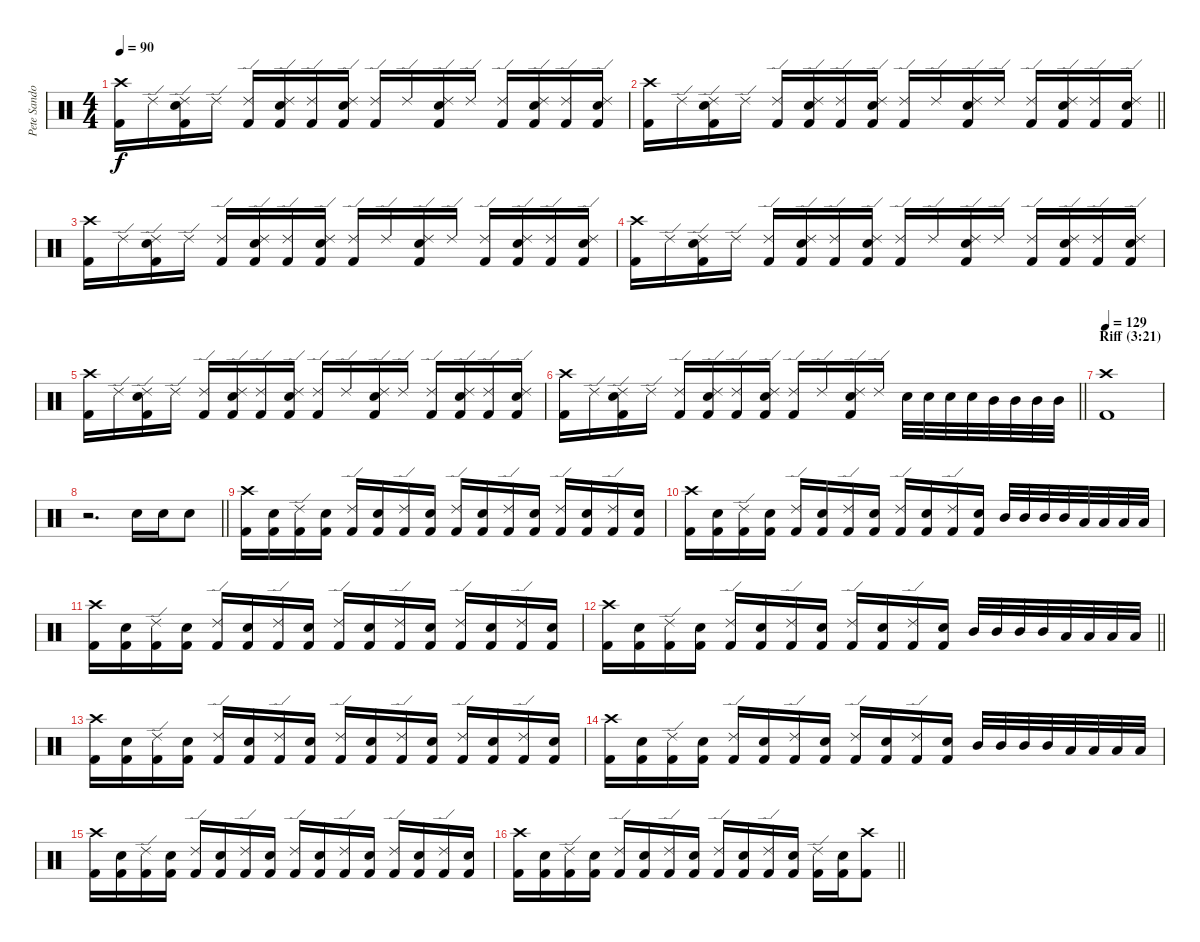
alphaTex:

\track ("Pete Sandoval " "Pete Sando") {instrument percussion}
\staff {score}
\articulation defaults
\ts (4 4)
\tempo 90
\clef neutral
\ks c
("Kick (hit) 2" "Crash high (hit)").16{dy f} "Ride (edge) 2".16 ("Kick (hit) 2" "Snare (hit) 2" "Ride (edge) 2").16 "Ride (edge) 2".16 ("Kick (hit) 2" "Ride (edge) 2").16 ("Kick (hit) 2" "Snare (hit) 2" "Ride (edge) 2").16 ("Kick (hit) 2" "Ride (edge) 2").16 ("Kick (hit) 2" "Snare (hit) 2" "Ride (edge) 2").16 ("Kick (hit) 2" "Ride (edge) 2").16 "Ride (edge) 2".16 ("Kick (hit) 2" "Snare (hit) 2" "Ride (edge) 2").16 "Ride (edge) 2".16 ("Kick (hit) 2" "Ride (edge) 2").16 ("Kick (hit) 2" "Snare (hit) 2" "Ride (edge) 2").16 ("Kick (hit) 2" "Ride (edge) 2").16 ("Kick (hit) 2" "Snare (hit) 2" "Ride (edge) 2").16 |
\barLineRight lightlight
("Kick (hit) 2" "Crash high (hit)").16 "Ride (edge) 2".16 ("Kick (hit) 2" "Snare (hit) 2" "Ride (edge) 2").16 "Ride (edge) 2".16 ("Kick (hit) 2" "Ride (edge) 2").16 ("Kick (hit) 2" "Snare (hit) 2" "Ride (edge) 2").16 ("Kick (hit) 2" "Ride (edge) 2").16 ("Kick (hit) 2" "Snare (hit) 2" "Ride (edge) 2").16 ("Kick (hit) 2" "Ride (edge) 2").16 "Ride (edge) 2".16 ("Kick (hit) 2" "Snare (hit) 2" "Ride (edge) 2").16 "Ride (edge) 2".16 ("Kick (hit) 2" "Ride (edge) 2").16 ("Kick (hit) 2" "Snare (hit) 2" "Ride (edge) 2").16 ("Kick (hit) 2" "Ride (edge) 2").16 ("Kick (hit) 2" "Snare (hit) 2" "Ride (edge) 2").16 |
("Kick (hit) 2" "Crash high (hit)").16 "Ride (edge) 2".16 ("Kick (hit) 2" "Snare (hit) 2" "Ride (edge) 2").16 "Ride (edge) 2".16 ("Kick (hit) 2" "Ride (edge) 2").16 ("Kick (hit) 2" "Snare (hit) 2" "Ride (edge) 2").16 ("Kick (hit) 2" "Ride (edge) 2").16 ("Kick (hit) 2" "Snare (hit) 2" "Ride (edge) 2").16 ("Kick (hit) 2" "Ride (edge) 2").16 "Ride (edge) 2".16 ("Kick (hit) 2" "Snare (hit) 2" "Ride (edge) 2").16 "Ride (edge) 2".16 ("Kick (hit) 2" "Ride (edge) 2").16 ("Kick (hit) 2" "Snare (hit) 2" "Ride (edge) 2").16 ("Kick (hit) 2" "Ride (edge) 2").16 ("Kick (hit) 2" "Snare (hit) 2" "Ride (edge) 2").16 |
("Kick (hit) 2" "Crash high (hit)").16 "Ride (edge) 2".16 ("Kick (hit) 2" "Snare (hit) 2" "Ride (edge) 2").16 "Ride (edge) 2".16 ("Kick (hit) 2" "Ride (edge) 2").16 ("Kick (hit) 2" "Snare (hit) 2" "Ride (edge) 2").16 ("Kick (hit) 2" "Ride (edge) 2").16 ("Kick (hit) 2" "Snare (hit) 2" "Ride (edge) 2").16 ("Kick (hit) 2" "Ride (edge) 2").16 "Ride (edge) 2".16 ("Kick (hit) 2" "Snare (hit) 2" "Ride (edge) 2").16 "Ride (edge) 2".16 ("Kick (hit) 2" "Ride (edge) 2").16 ("Kick (hit) 2" "Snare (hit) 2" "Ride (edge) 2").16 ("Kick (hit) 2" "Ride (edge) 2").16 ("Kick (hit) 2" "Snare (hit) 2" "Ride (edge) 2").16 |
("Kick (hit) 2" "Crash high (hit)").16 "Ride (edge) 2".16 ("Kick (hit) 2" "Snare (hit) 2" "Ride (edge) 2").16 "Ride (edge) 2".16 ("Kick (hit) 2" "Ride (edge) 2").16 ("Kick (hit) 2" "Snare (hit) 2" "Ride (edge) 2").16 ("Kick (hit) 2" "Ride (edge) 2").16 ("Kick (hit) 2" "Snare (hit) 2" "Ride (edge) 2").16 ("Kick (hit) 2" "Ride (edge) 2").16 "Ride (edge) 2".16 ("Kick (hit) 2" "Snare (hit) 2" "Ride (edge) 2").16 "Ride (edge) 2".16 ("Kick (hit) 2" "Ride (edge) 2").16 ("Kick (hit) 2" "Snare (hit) 2" "Ride (edge) 2").16 ("Kick (hit) 2" "Ride (edge) 2").16 ("Kick (hit) 2" "Snare (hit) 2" "Ride (edge) 2").16 |
\barLineRight lightlight
("Kick (hit) 2" "Crash high (hit)").16 "Ride (edge) 2".16 ("Kick (hit) 2" "Snare (hit) 2" "Ride (edge) 2").16 "Ride (edge) 2".16 ("Kick (hit) 2" "Ride (edge) 2").16 ("Kick (hit) 2" "Snare (hit) 2" "Ride (edge) 2").16 ("Kick (hit) 2" "Ride (edge) 2").16 ("Kick (hit) 2" "Snare (hit) 2" "Ride (edge) 2").16 ("Kick (hit) 2" "Ride (edge) 2").16 "Ride (edge) 2".16 ("Kick (hit) 2" "Snare (hit) 2" "Ride (edge) 2").16 "Ride (edge) 2".16 "Snare (hit) 2".32 "Snare (hit) 2".32 "Snare (hit) 2".32 "Snare (hit) 2".32 "Mid Tom (hit)".32 "Mid Tom (hit)".32 "Mid Tom (hit)".32 "Mid Tom (hit)".32 |
\section ("" "Riff (3:21)")
\tempo 129
("Kick (hit) 2" "Crash high (hit)").1 |
\barLineRight lightlight
r.2{d} "Snare (hit) 2".16 "Snare (hit) 2".16 "Snare (hit) 2".8 |
("Kick (hit) 2" "Crash high (hit)").16 ("Kick (hit) 2" "Snare (hit) 2").16 ("Kick (hit) 2" "Ride (edge) 2").16 ("Kick (hit) 2" "Snare (hit) 2").16 ("Kick (hit) 2" "Ride (edge) 2").16 ("Kick (hit) 2" "Snare (hit) 2").16 ("Kick (hit) 2" "Ride (edge) 2").16 ("Kick (hit) 2" "Snare (hit) 2").16 ("Kick (hit) 2" "Ride (edge) 2").16 ("Kick (hit) 2" "Snare (hit) 2").16 ("Kick (hit) 2" "Ride (edge) 2").16 ("Kick (hit) 2" "Snare (hit) 2").16 ("Kick (hit) 2" "Ride (edge) 2").16 ("Kick (hit) 2" "Snare (hit) 2").16 ("Kick (hit) 2" "Ride (edge) 2").16 ("Kick (hit) 2" "Snare (hit) 2").16 |
("Kick (hit) 2" "Crash high (hit)").16 ("Kick (hit) 2" "Snare (hit) 2").16 ("Kick (hit) 2" "Ride (edge) 2").16 ("Kick (hit) 2" "Snare (hit) 2").16 ("Kick (hit) 2" "Ride (edge) 2").16 ("Kick (hit) 2" "Snare (hit) 2").16 ("Kick (hit) 2" "Ride (edge) 2").16 ("Kick (hit) 2" "Snare (hit) 2").16 ("Kick (hit) 2" "Ride (edge) 2").16 ("Kick (hit) 2" "Snare (hit) 2").16 ("Kick (hit) 2" "Ride (edge) 2").16 ("Kick (hit) 2" "Snare (hit) 2").16 "Mid Tom (hit)".32 "Mid Tom (hit)".32 "Mid Tom (hit)".32 "Mid Tom (hit)".32 "Low Tom (hit)".32 "Low Tom (hit)".32 "Low Tom (hit)".32 "Low Tom (hit)".32 |
("Kick (hit) 2" "Crash high (hit)").16 ("Kick (hit) 2" "Snare (hit) 2").16 ("Kick (hit) 2" "Ride (edge) 2").16 ("Kick (hit) 2" "Snare (hit) 2").16 ("Kick (hit) 2" "Ride (edge) 2").16 ("Kick (hit) 2" "Snare (hit) 2").16 ("Kick (hit) 2" "Ride (edge) 2").16 ("Kick (hit) 2" "Snare (hit) 2").16 ("Kick (hit) 2" "Ride (edge) 2").16 ("Kick (hit) 2" "Snare (hit) 2").16 ("Kick (hit) 2" "Ride (edge) 2").16 ("Kick (hit) 2" "Snare (hit) 2").16 ("Kick (hit) 2" "Ride (edge) 2").16 ("Kick (hit) 2" "Snare (hit) 2").16 ("Kick (hit) 2" "Ride (edge) 2").16 ("Kick (hit) 2" "Snare (hit) 2").16 |
\barLineRight lightlight
("Kick (hit) 2" "Crash high (hit)").16 ("Kick (hit) 2" "Snare (hit) 2").16 ("Kick (hit) 2" "Ride (edge) 2").16 ("Kick (hit) 2" "Snare (hit) 2").16 ("Kick (hit) 2" "Ride (edge) 2").16 ("Kick (hit) 2" "Snare (hit) 2").16 ("Kick (hit) 2" "Ride (edge) 2").16 ("Kick (hit) 2" "Snare (hit) 2").16 ("Kick (hit) 2" "Ride (edge) 2").16 ("Kick (hit) 2" "Snare (hit) 2").16 ("Kick (hit) 2" "Ride (edge) 2").16 ("Kick (hit) 2" "Snare (hit) 2").16 "Mid Tom (hit)".32 "Mid Tom (hit)".32 "Mid Tom (hit)".32 "Mid Tom (hit)".32 "Low Tom (hit)".32 "Low Tom (hit)".32 "Low Tom (hit)".32 "Low Tom (hit)".32 |
("Kick (hit) 2" "Crash high (hit)").16 ("Kick (hit) 2" "Snare (hit) 2").16 ("Kick (hit) 2" "Ride (edge) 2").16 ("Kick (hit) 2" "Snare (hit) 2").16 ("Kick (hit) 2" "Ride (edge) 2").16 ("Kick (hit) 2" "Snare (hit) 2").16 ("Kick (hit) 2" "Ride (edge) 2").16 ("Kick (hit) 2" "Snare (hit) 2").16 ("Kick (hit) 2" "Ride (edge) 2").16 ("Kick (hit) 2" "Snare (hit) 2").16 ("Kick (hit) 2" "Ride (edge) 2").16 ("Kick (hit) 2" "Snare (hit) 2").16 ("Kick (hit) 2" "Ride (edge) 2").16 ("Kick (hit) 2" "Snare (hit) 2").16 ("Kick (hit) 2" "Ride (edge) 2").16 ("Kick (hit) 2" "Snare (hit) 2").16 |
("Kick (hit) 2" "Crash high (hit)").16 ("Kick (hit) 2" "Snare (hit) 2").16 ("Kick (hit) 2" "Ride (edge) 2").16 ("Kick (hit) 2" "Snare (hit) 2").16 ("Kick (hit) 2" "Ride (edge) 2").16 ("Kick (hit) 2" "Snare (hit) 2").16 ("Kick (hit) 2" "Ride (edge) 2").16 ("Kick (hit) 2" "Snare (hit) 2").16 ("Kick (hit) 2" "Ride (edge) 2").16 ("Kick (hit) 2" "Snare (hit) 2").16 ("Kick (hit) 2" "Ride (edge) 2").16 ("Kick (hit) 2" "Snare (hit) 2").16 "Mid Tom (hit)".32 "Mid Tom (hit)".32 "Mid Tom (hit)".32 "Mid Tom (hit)".32 "Low Tom (hit)".32 "Low Tom (hit)".32 "Low Tom (hit)".32 "Low Tom (hit)".32 |
("Kick (hit) 2" "Crash high (hit)").16 ("Kick (hit) 2" "Snare (hit) 2").16 ("Kick (hit) 2" "Ride (edge) 2").16 ("Kick (hit) 2" "Snare (hit) 2").16 ("Kick (hit) 2" "Ride (edge) 2").16 ("Kick (hit) 2" "Snare (hit) 2").16 ("Kick (hit) 2" "Ride (edge) 2").16 ("Kick (hit) 2" "Snare (hit) 2").16 ("Kick (hit) 2" "Ride (edge) 2").16 ("Kick (hit) 2" "Snare (hit) 2").16 ("Kick (hit) 2" "Ride (edge) 2").16 ("Kick (hit) 2" "Snare (hit) 2").16 ("Kick (hit) 2" "Ride (edge) 2").16 ("Kick (hit) 2" "Snare (hit) 2").16 ("Kick (hit) 2" "Ride (edge) 2").16 ("Kick (hit) 2" "Snare (hit) 2").16 |
\barLineRight lightlight
("Kick (hit) 2" "Crash high (hit)").16 ("Kick (hit) 2" "Snare (hit) 2").16 ("Kick (hit) 2" "Ride (edge) 2").16 ("Kick (hit) 2" "Snare (hit) 2").16 ("Kick (hit) 2" "Ride (edge) 2").16 ("Kick (hit) 2" "Snare (hit) 2").16 ("Kick (hit) 2" "Ride (edge) 2").16 ("Kick (hit) 2" "Snare (hit) 2").16 ("Kick (hit) 2" "Ride (edge) 2").16 ("Kick (hit) 2" "Snare (hit) 2").16 ("Kick (hit) 2" "Ride (edge) 2").16 ("Kick (hit) 2" "Snare (hit) 2").16 ("Kick (hit) 2" "Ride (edge) 2").16 ("Kick (hit) 2" "Snare (hit) 2").16 ("Kick (hit) 2" "Crash high (hit)").8
